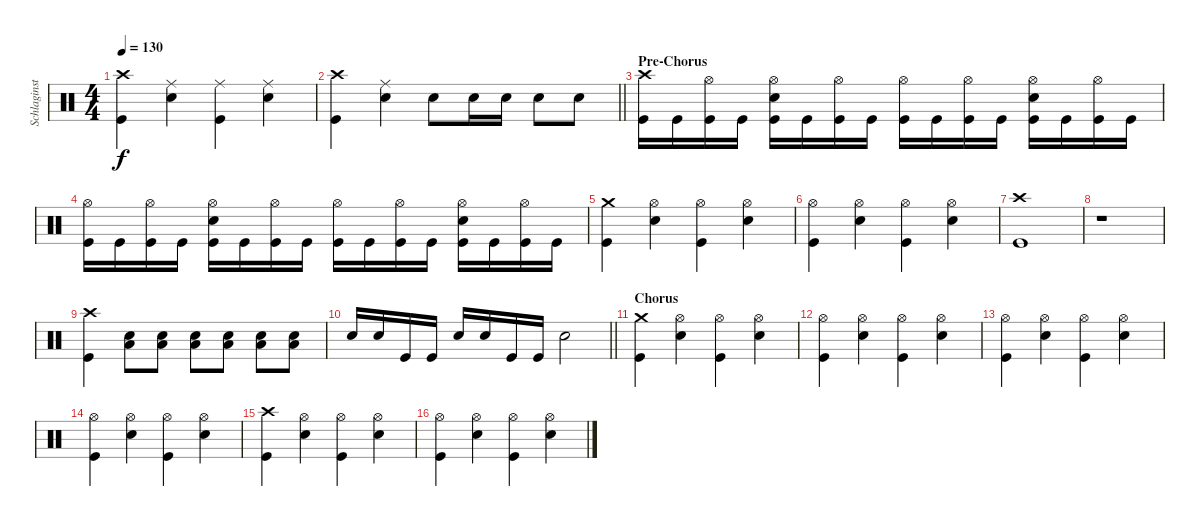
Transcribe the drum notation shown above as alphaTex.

\track ("Schlaginstrumente - Auswahl" "Schlaginst") {instrument percussion}
\staff {score}
\articulation defaults
\ts (4 4)
\tempo 130
\clef neutral
\ks c
("Crash high (hit)" "Kick (hit)").4{dy f} ("Ride (middle)" "Snare (hit) 2").4 ("Ride (middle)" "Kick (hit)").4 ("Ride (middle)" "Snare (hit) 2").4 |
\barLineRight lightlight
("Crash high (hit)" "Kick (hit)").4 ("Ride (middle)" "Snare (hit) 2").4 "Snare (hit) 2".8 "Snare (hit) 2".16 "Snare (hit) 2".16 "Snare (hit) 2".8 "Snare (hit) 2".8 |
\section ("" "Pre-Chorus")
("Kick (hit)" "Crash high (hit)").16 "Kick (hit)".16 ("Kick (hit)" "Hi-Hat (open)").16 "Kick (hit)".16 ("Kick (hit)" "Snare (hit) 2" "Hi-Hat (open)").16 "Kick (hit)".16 ("Kick (hit)" "Hi-Hat (open)").16 "Kick (hit)".16 ("Kick (hit)" "Hi-Hat (open)").16 "Kick (hit)".16 ("Kick (hit)" "Hi-Hat (open)").16 "Kick (hit)".16 ("Kick (hit)" "Snare (hit) 2" "Hi-Hat (open)").16 "Kick (hit)".16 ("Kick (hit)" "Hi-Hat (open)").16 "Kick (hit)".16 |
("Kick (hit)" "Hi-Hat (open)").16 "Kick (hit)".16 ("Kick (hit)" "Hi-Hat (open)").16 "Kick (hit)".16 ("Kick (hit)" "Snare (hit) 2" "Hi-Hat (open)").16 "Kick (hit)".16 ("Kick (hit)" "Hi-Hat (open)").16 "Kick (hit)".16 ("Kick (hit)" "Hi-Hat (open)").16 "Kick (hit)".16 ("Kick (hit)" "Hi-Hat (open)").16 "Kick (hit)".16 ("Kick (hit)" "Snare (hit) 2" "Hi-Hat (open)").16 "Kick (hit)".16 ("Kick (hit)" "Hi-Hat (open)").16 "Kick (hit)".16 |
("Crash medium (hit)" "Kick (hit)").4 ("Hi-Hat (open)" "Snare (hit) 2").4 ("Hi-Hat (open)" "Kick (hit)").4 ("Hi-Hat (open)" "Snare (hit) 2").4 |
("Hi-Hat (open)" "Kick (hit)").4 ("Hi-Hat (open)" "Snare (hit) 2").4 ("Hi-Hat (open)" "Kick (hit)").4 ("Hi-Hat (open)" "Snare (hit) 2").4 |
("Kick (hit)" "Crash high (hit)").1 |
r.1 |
("Kick (hit)" "Crash high (hit)").4 ("Snare (hit) 2" "Low Floor Tom (hit)").8 ("Snare (hit) 2" "Low Floor Tom (hit)").8 ("Snare (hit) 2" "Low Floor Tom (hit)").8 ("Snare (hit) 2" "Low Floor Tom (hit)").8 ("Snare (hit) 2" "Low Floor Tom (hit)").8 ("Snare (hit) 2" "Low Floor Tom (hit)").8 |
\barLineRight lightlight "Snare (hit) 2".16 "Snare (hit) 2".16 "Kick (hit)".16 "Kick (hit)".16 "Snare (hit) 2".16 "Snare (hit) 2".16 "Kick (hit)".16 "Kick (hit)".16 "Snare (hit) 2".2
|
\section ("" "Chorus")
("Crash medium (hit)" "Kick (hit)").4 ("Hi-Hat (open)" "Snare (hit) 2").4 ("Hi-Hat (open)" "Kick (hit)").4 ("Hi-Hat (open)" "Snare (hit) 2").4 |
("Hi-Hat (open)" "Kick (hit)").4 ("Hi-Hat (open)" "Snare (hit) 2").4 ("Hi-Hat (open)" "Kick (hit)").4 ("Hi-Hat (open)" "Snare (hit) 2").4 |
("Hi-Hat (open)" "Kick (hit)").4 ("Hi-Hat (open)" "Snare (hit) 2").4 ("Hi-Hat (open)" "Kick (hit)").4 ("Hi-Hat (open)" "Snare (hit) 2").4 |
("Hi-Hat (open)" "Kick (hit)").4 ("Hi-Hat (open)" "Snare (hit) 2").4 ("Hi-Hat (open)" "Kick (hit)").4 ("Hi-Hat (open)" "Snare (hit) 2").4 |
("Crash high (hit)" "Kick (hit)").4 ("Hi-Hat (open)" "Snare (hit) 2").4 ("Hi-Hat (open)" "Kick (hit)").4 ("Hi-Hat (open)" "Snare (hit) 2").4 |
("Hi-Hat (open)" "Kick (hit)").4 ("Hi-Hat (open)" "Snare (hit) 2").4 ("Hi-Hat (open)" "Kick (hit)").4 ("Hi-Hat (open)" "Snare (hit) 2").4
